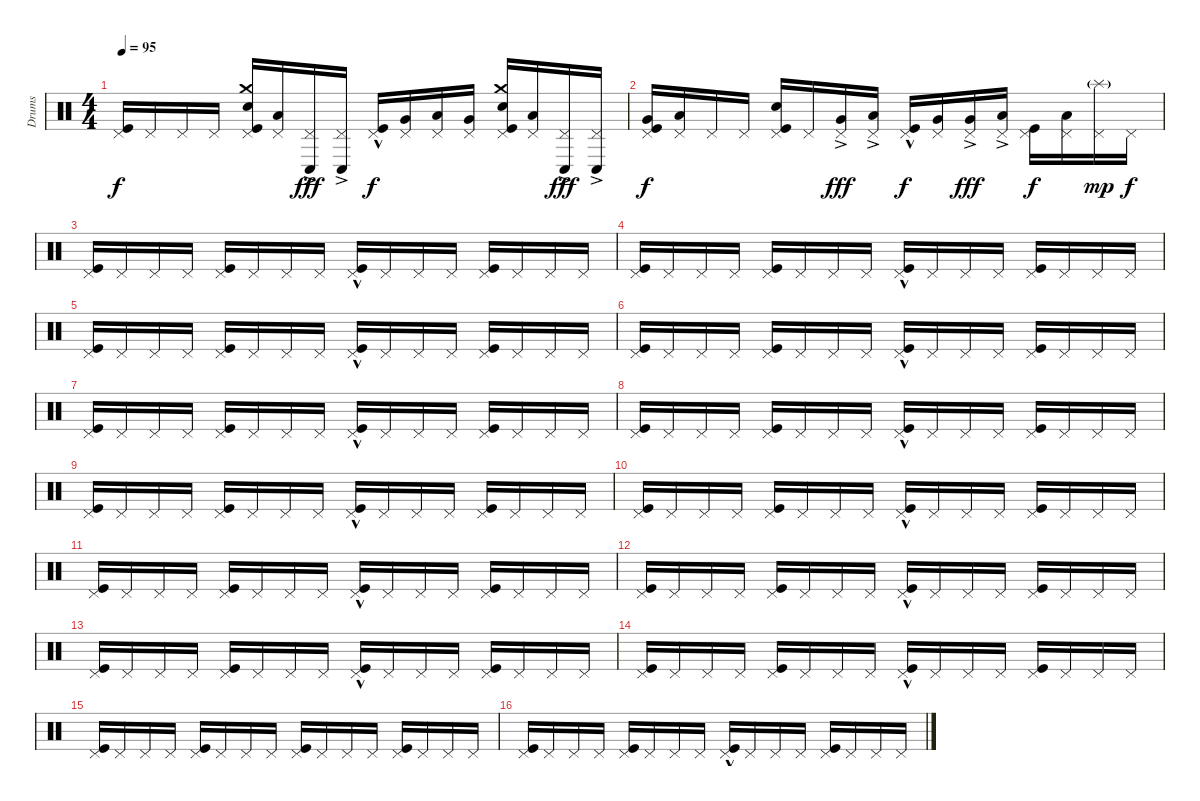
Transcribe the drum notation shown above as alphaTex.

\track ("Drums" "Drums") {instrument percussion}
\staff {score}
\articulation defaults
\ts (4 4)
\tempo 95
\clef neutral
\ks c
("Kick (hit)" "Pedal Hi-Hat (hit)").16{dy f} "Pedal Hi-Hat (hit)".16 "Pedal Hi-Hat (hit)".16 "Pedal Hi-Hat (hit)".16 ("Kick (hit)" "Snare (hit) 2" "Crash medium (hit)" "Pedal Hi-Hat (hit)").16 ("Low Floor Tom (hit)" "Pedal Hi-Hat (hit)").16 ("Conga low (hit)"{ac} "Pedal Hi-Hat (hit)").16{dy fff} ("Conga low (hit)"{ac} "Pedal Hi-Hat (hit)").16 ("Kick (hit)" "Pedal Hi-Hat (hit)"{hac}).16{dy f} ("Very Low Tom (hit)" "Pedal Hi-Hat (hit)").16 ("Low Floor Tom (hit)" "Pedal Hi-Hat (hit)").16 ("Very Low Tom (hit)" "Pedal Hi-Hat (hit)").16 ("Kick (hit)" "Snare (hit) 2" "Crash medium (hit)" "Pedal Hi-Hat (hit)").16 ("Low Floor Tom (hit)" "Pedal Hi-Hat (hit)").16 ("Conga low (hit)"{ac} "Pedal Hi-Hat (hit)").16{dy fff} ("Conga low (hit)"{ac} "Pedal Hi-Hat (hit)").16 |
("Kick (hit)" "Very Low Tom (hit)" "Pedal Hi-Hat (hit)").16{dy f} ("Low Floor Tom (hit)" "Pedal Hi-Hat (hit)").16 "Pedal Hi-Hat (hit)".16 "Pedal Hi-Hat (hit)".16 ("Kick (hit)" "Snare (hit) 2" "Pedal Hi-Hat (hit)").16 "Pedal Hi-Hat (hit)".16 ("Very Low Tom (hit)"{ac} "Pedal Hi-Hat (hit)").16{dy fff} ("Low Floor Tom (hit)"{ac} "Pedal Hi-Hat (hit)").16 ("Kick (hit)" "Pedal Hi-Hat (hit)"{hac}).16{dy f} ("Very Low Tom (hit)" "Pedal Hi-Hat (hit)").16 ("Very Low Tom (hit)"{ac} "Pedal Hi-Hat (hit)").16{dy fff} ("Low Floor Tom (hit)"{ac} "Pedal Hi-Hat (hit)").16 ("Kick (hit)" "Pedal Hi-Hat (hit)").16{dy f} ("Low Floor Tom (hit)" "Pedal Hi-Hat (hit)").16 ("Splash (hit)"{g} "Pedal Hi-Hat (hit)").16{dy mp} "Pedal Hi-Hat (hit)".16{dy f} |
("Kick (hit)" "Pedal Hi-Hat (hit)").16 "Pedal Hi-Hat (hit)".16 "Pedal Hi-Hat (hit)".16 "Pedal Hi-Hat (hit)".16 ("Kick (hit)" "Pedal Hi-Hat (hit)").16 "Pedal Hi-Hat (hit)".16 "Pedal Hi-Hat (hit)".16 "Pedal Hi-Hat (hit)".16 ("Kick (hit)" "Pedal Hi-Hat (hit)"{hac}).16 "Pedal Hi-Hat (hit)".16 "Pedal Hi-Hat (hit)".16 "Pedal Hi-Hat (hit)".16 ("Kick (hit)" "Pedal Hi-Hat (hit)").16 "Pedal Hi-Hat (hit)".16 "Pedal Hi-Hat (hit)".16 "Pedal Hi-Hat (hit)".16 |
("Kick (hit)" "Pedal Hi-Hat (hit)").16 "Pedal Hi-Hat (hit)".16 "Pedal Hi-Hat (hit)".16 "Pedal Hi-Hat (hit)".16 ("Kick (hit)" "Pedal Hi-Hat (hit)").16 "Pedal Hi-Hat (hit)".16 "Pedal Hi-Hat (hit)".16 "Pedal Hi-Hat (hit)".16 ("Kick (hit)" "Pedal Hi-Hat (hit)"{hac}).16 "Pedal Hi-Hat (hit)".16 "Pedal Hi-Hat (hit)".16 "Pedal Hi-Hat (hit)".16 ("Kick (hit)" "Pedal Hi-Hat (hit)").16 "Pedal Hi-Hat (hit)".16 "Pedal Hi-Hat (hit)".16 "Pedal Hi-Hat (hit)".16 |
("Kick (hit)" "Pedal Hi-Hat (hit)").16 "Pedal Hi-Hat (hit)".16 "Pedal Hi-Hat (hit)".16 "Pedal Hi-Hat (hit)".16 ("Kick (hit)" "Pedal Hi-Hat (hit)").16 "Pedal Hi-Hat (hit)".16 "Pedal Hi-Hat (hit)".16 "Pedal Hi-Hat (hit)".16 ("Kick (hit)" "Pedal Hi-Hat (hit)"{hac}).16 "Pedal Hi-Hat (hit)".16 "Pedal Hi-Hat (hit)".16 "Pedal Hi-Hat (hit)".16 ("Kick (hit)" "Pedal Hi-Hat (hit)").16 "Pedal Hi-Hat (hit)".16 "Pedal Hi-Hat (hit)".16 "Pedal Hi-Hat (hit)".16 |
("Kick (hit)" "Pedal Hi-Hat (hit)").16 "Pedal Hi-Hat (hit)".16 "Pedal Hi-Hat (hit)".16 "Pedal Hi-Hat (hit)".16 ("Kick (hit)" "Pedal Hi-Hat (hit)").16 "Pedal Hi-Hat (hit)".16 "Pedal Hi-Hat (hit)".16 "Pedal Hi-Hat (hit)".16 ("Kick (hit)" "Pedal Hi-Hat (hit)"{hac}).16 "Pedal Hi-Hat (hit)".16 "Pedal Hi-Hat (hit)".16 "Pedal Hi-Hat (hit)".16 ("Kick (hit)" "Pedal Hi-Hat (hit)").16 "Pedal Hi-Hat (hit)".16 "Pedal Hi-Hat (hit)".16 "Pedal Hi-Hat (hit)".16 |
("Kick (hit)" "Pedal Hi-Hat (hit)").16 "Pedal Hi-Hat (hit)".16 "Pedal Hi-Hat (hit)".16 "Pedal Hi-Hat (hit)".16 ("Kick (hit)" "Pedal Hi-Hat (hit)").16 "Pedal Hi-Hat (hit)".16 "Pedal Hi-Hat (hit)".16 "Pedal Hi-Hat (hit)".16 ("Kick (hit)" "Pedal Hi-Hat (hit)"{hac}).16 "Pedal Hi-Hat (hit)".16 "Pedal Hi-Hat (hit)".16 "Pedal Hi-Hat (hit)".16 ("Kick (hit)" "Pedal Hi-Hat (hit)").16 "Pedal Hi-Hat (hit)".16 "Pedal Hi-Hat (hit)".16 "Pedal Hi-Hat (hit)".16 |
("Kick (hit)" "Pedal Hi-Hat (hit)").16 "Pedal Hi-Hat (hit)".16 "Pedal Hi-Hat (hit)".16 "Pedal Hi-Hat (hit)".16 ("Kick (hit)" "Pedal Hi-Hat (hit)").16 "Pedal Hi-Hat (hit)".16 "Pedal Hi-Hat (hit)".16 "Pedal Hi-Hat (hit)".16 ("Kick (hit)" "Pedal Hi-Hat (hit)"{hac}).16 "Pedal Hi-Hat (hit)".16 "Pedal Hi-Hat (hit)".16 "Pedal Hi-Hat (hit)".16 ("Kick (hit)" "Pedal Hi-Hat (hit)").16 "Pedal Hi-Hat (hit)".16 "Pedal Hi-Hat (hit)".16 "Pedal Hi-Hat (hit)".16 |
("Kick (hit)" "Pedal Hi-Hat (hit)").16 "Pedal Hi-Hat (hit)".16 "Pedal Hi-Hat (hit)".16 "Pedal Hi-Hat (hit)".16 ("Kick (hit)" "Pedal Hi-Hat (hit)").16 "Pedal Hi-Hat (hit)".16 "Pedal Hi-Hat (hit)".16 "Pedal Hi-Hat (hit)".16 ("Kick (hit)" "Pedal Hi-Hat (hit)"{hac}).16 "Pedal Hi-Hat (hit)".16 "Pedal Hi-Hat (hit)".16 "Pedal Hi-Hat (hit)".16 ("Kick (hit)" "Pedal Hi-Hat (hit)").16 "Pedal Hi-Hat (hit)".16 "Pedal Hi-Hat (hit)".16 "Pedal Hi-Hat (hit)".16 |
("Kick (hit)" "Pedal Hi-Hat (hit)").16 "Pedal Hi-Hat (hit)".16 "Pedal Hi-Hat (hit)".16 "Pedal Hi-Hat (hit)".16 ("Kick (hit)" "Pedal Hi-Hat (hit)").16 "Pedal Hi-Hat (hit)".16 "Pedal Hi-Hat (hit)".16 "Pedal Hi-Hat (hit)".16 ("Kick (hit)" "Pedal Hi-Hat (hit)"{hac}).16 "Pedal Hi-Hat (hit)".16 "Pedal Hi-Hat (hit)".16 "Pedal Hi-Hat (hit)".16 ("Kick (hit)" "Pedal Hi-Hat (hit)").16 "Pedal Hi-Hat (hit)".16 "Pedal Hi-Hat (hit)".16 "Pedal Hi-Hat (hit)".16 |
("Kick (hit)" "Pedal Hi-Hat (hit)").16 "Pedal Hi-Hat (hit)".16 "Pedal Hi-Hat (hit)".16 "Pedal Hi-Hat (hit)".16 ("Kick (hit)" "Pedal Hi-Hat (hit)").16 "Pedal Hi-Hat (hit)".16 "Pedal Hi-Hat (hit)".16 "Pedal Hi-Hat (hit)".16 ("Kick (hit)" "Pedal Hi-Hat (hit)"{hac}).16 "Pedal Hi-Hat (hit)".16 "Pedal Hi-Hat (hit)".16 "Pedal Hi-Hat (hit)".16 ("Kick (hit)" "Pedal Hi-Hat (hit)").16 "Pedal Hi-Hat (hit)".16 "Pedal Hi-Hat (hit)".16 "Pedal Hi-Hat (hit)".16 |
("Kick (hit)" "Pedal Hi-Hat (hit)").16 "Pedal Hi-Hat (hit)".16 "Pedal Hi-Hat (hit)".16 "Pedal Hi-Hat (hit)".16 ("Kick (hit)" "Pedal Hi-Hat (hit)").16 "Pedal Hi-Hat (hit)".16 "Pedal Hi-Hat (hit)".16 "Pedal Hi-Hat (hit)".16 ("Kick (hit)" "Pedal Hi-Hat (hit)"{hac}).16 "Pedal Hi-Hat (hit)".16 "Pedal Hi-Hat (hit)".16 "Pedal Hi-Hat (hit)".16 ("Kick (hit)" "Pedal Hi-Hat (hit)").16 "Pedal Hi-Hat (hit)".16 "Pedal Hi-Hat (hit)".16 "Pedal Hi-Hat (hit)".16 |
("Kick (hit)" "Pedal Hi-Hat (hit)").16 "Pedal Hi-Hat (hit)".16 "Pedal Hi-Hat (hit)".16 "Pedal Hi-Hat (hit)".16 ("Kick (hit)" "Pedal Hi-Hat (hit)").16 "Pedal Hi-Hat (hit)".16 "Pedal Hi-Hat (hit)".16 "Pedal Hi-Hat (hit)".16 ("Kick (hit)" "Pedal Hi-Hat (hit)"{hac}).16 "Pedal Hi-Hat (hit)".16 "Pedal Hi-Hat (hit)".16 "Pedal Hi-Hat (hit)".16 ("Kick (hit)" "Pedal Hi-Hat (hit)").16 "Pedal Hi-Hat (hit)".16 "Pedal Hi-Hat (hit)".16 "Pedal Hi-Hat (hit)".16 |
("Kick (hit)" "Pedal Hi-Hat (hit)").16 "Pedal Hi-Hat (hit)".16 "Pedal Hi-Hat (hit)".16 "Pedal Hi-Hat (hit)".16 ("Kick (hit)" "Pedal Hi-Hat (hit)").16 "Pedal Hi-Hat (hit)".16 "Pedal Hi-Hat (hit)".16 "Pedal Hi-Hat (hit)".16 ("Kick (hit)" "Pedal Hi-Hat (hit)"{hac}).16 "Pedal Hi-Hat (hit)".16 "Pedal Hi-Hat (hit)".16{volume 7} "Pedal Hi-Hat (hit)".16 ("Kick (hit)" "Pedal Hi-Hat (hit)").16 "Pedal Hi-Hat (hit)".16 "Pedal Hi-Hat (hit)".16 "Pedal Hi-Hat (hit)".16 |
("Kick (hit)" "Pedal Hi-Hat (hit)").16 "Pedal Hi-Hat (hit)".16 "Pedal Hi-Hat (hit)".16 "Pedal Hi-Hat (hit)".16 ("Kick (hit)" "Pedal Hi-Hat (hit)").16 "Pedal Hi-Hat (hit)".16 "Pedal Hi-Hat (hit)".16 "Pedal Hi-Hat (hit)".16{volume 4} ("Kick (hit)" "Pedal Hi-Hat (hit)").16 "Pedal Hi-Hat (hit)".16 "Pedal Hi-Hat (hit)".16 "Pedal Hi-Hat (hit)".16 ("Kick (hit)" "Pedal Hi-Hat (hit)").16 "Pedal Hi-Hat (hit)".16 "Pedal Hi-Hat (hit)".16 "Pedal Hi-Hat (hit)".16 |
("Kick (hit)" "Pedal Hi-Hat (hit)").16 "Pedal Hi-Hat (hit)".16 "Pedal Hi-Hat (hit)".16 "Pedal Hi-Hat (hit)".16 ("Kick (hit)" "Pedal Hi-Hat (hit)").16 "Pedal Hi-Hat (hit)".16 "Pedal Hi-Hat (hit)".16 "Pedal Hi-Hat (hit)".16 ("Kick (hit)" "Pedal Hi-Hat (hit)"{hac}).16 "Pedal Hi-Hat (hit)".16 "Pedal Hi-Hat (hit)".16 "Pedal Hi-Hat (hit)".16 ("Kick (hit)" "Pedal Hi-Hat (hit)").16 "Pedal Hi-Hat (hit)".16 "Pedal Hi-Hat (hit)".16 "Pedal Hi-Hat (hit)".16
